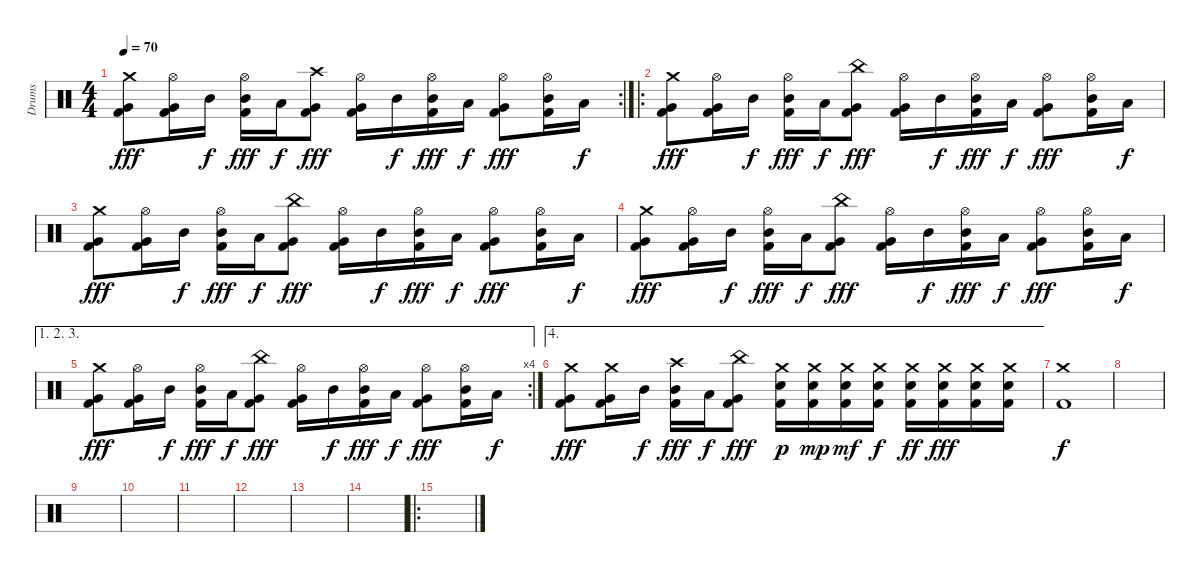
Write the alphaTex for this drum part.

\track ("Drums" "Drums") {instrument percussion}
\staff {score}
\articulation defaults
\rc 2
\ts (4 4)
\tempo 70
\clef neutral
\ks c
("Crash medium (hit)" "Kick (hit) 2" "Very Low Tom (hit)").8{dy fff} ("Hi-Hat (open)" "Kick (hit) 2" "Very Low Tom (hit)").16 "Mid Tom (hit)".16{dy f} ("Hi-Hat (open)" "Kick (hit) 2" "Mid Tom (hit)").16{dy fff} "Low Tom (hit)".16{dy f} ("Crash high (hit)" "Kick (hit) 2" "Very Low Tom (hit)").8{dy fff} ("Hi-Hat (open)" "Kick (hit) 2" "Very Low Tom (hit)").16 "Mid Tom (hit)".16{dy f} ("Hi-Hat (open)" "Kick (hit) 2" "Mid Tom (hit)").16{dy fff} "Low Tom (hit)".16{dy f} ("Hi-Hat (open)" "Kick (hit) 2" "Very Low Tom (hit)").8{dy fff} ("Hi-Hat (open)" "Kick (hit) 2" "Mid Tom (hit)").16 "Low Tom (hit)".16{dy f} |
\ro
("Crash medium (hit)" "Kick (hit) 2" "Very Low Tom (hit)").8{dy fff} ("Hi-Hat (open)" "Kick (hit) 2" "Very Low Tom (hit)").16 "Mid Tom (hit)".16{dy f} ("Hi-Hat (open)" "Kick (hit) 2" "Mid Tom (hit)").16{dy fff} "Low Tom (hit)".16{dy f} ("China (hit)" "Kick (hit) 2" "Very Low Tom (hit)").8{dy fff} ("Hi-Hat (open)" "Kick (hit) 2" "Very Low Tom (hit)").16 "Mid Tom (hit)".16{dy f} ("Hi-Hat (open)" "Kick (hit) 2" "Mid Tom (hit)").16{dy fff} "Low Tom (hit)".16{dy f} ("Hi-Hat (open)" "Kick (hit) 2" "Very Low Tom (hit)").8{dy fff} ("Hi-Hat (open)" "Kick (hit) 2" "Mid Tom (hit)").16 "Low Tom (hit)".16{dy f} |
("Crash medium (hit)" "Kick (hit) 2" "Very Low Tom (hit)").8{dy fff} ("Hi-Hat (open)" "Kick (hit) 2" "Very Low Tom (hit)").16 "Mid Tom (hit)".16{dy f} ("Hi-Hat (open)" "Kick (hit) 2" "Mid Tom (hit)").16{dy fff} "Low Tom (hit)".16{dy f} ("China (hit)" "Kick (hit) 2" "Very Low Tom (hit)").8{dy fff} ("Hi-Hat (open)" "Kick (hit) 2" "Very Low Tom (hit)").16 "Mid Tom (hit)".16{dy f} ("Hi-Hat (open)" "Kick (hit) 2" "Mid Tom (hit)").16{dy fff} "Low Tom (hit)".16{dy f} ("Hi-Hat (open)" "Kick (hit) 2" "Very Low Tom (hit)").8{dy fff} ("Hi-Hat (open)" "Kick (hit) 2" "Mid Tom (hit)").16 "Low Tom (hit)".16{dy f} |
("Crash medium (hit)" "Kick (hit) 2" "Very Low Tom (hit)").8{dy fff} ("Hi-Hat (open)" "Kick (hit) 2" "Very Low Tom (hit)").16 "Mid Tom (hit)".16{dy f} ("Hi-Hat (open)" "Kick (hit) 2" "Mid Tom (hit)").16{dy fff} "Low Tom (hit)".16{dy f} ("China (hit)" "Kick (hit) 2" "Very Low Tom (hit)").8{dy fff} ("Hi-Hat (open)" "Kick (hit) 2" "Very Low Tom (hit)").16 "Mid Tom (hit)".16{dy f} ("Hi-Hat (open)" "Kick (hit) 2" "Mid Tom (hit)").16{dy fff} "Low Tom (hit)".16{dy f} ("Hi-Hat (open)" "Kick (hit) 2" "Very Low Tom (hit)").8{dy fff} ("Hi-Hat (open)" "Kick (hit) 2" "Mid Tom (hit)").16 "Low Tom (hit)".16{dy f} |
\ae (1 2 3)
\rc 4
("Crash medium (hit)" "Kick (hit) 2" "Very Low Tom (hit)").8{dy fff} ("Hi-Hat (open)" "Kick (hit) 2" "Very Low Tom (hit)").16 "Mid Tom (hit)".16{dy f} ("Hi-Hat (open)" "Kick (hit) 2" "Mid Tom (hit)").16{dy fff} "Low Tom (hit)".16{dy f} ("China (hit)" "Kick (hit) 2" "Very Low Tom (hit)").8{dy fff} ("Hi-Hat (open)" "Kick (hit) 2" "Very Low Tom (hit)").16 "Mid Tom (hit)".16{dy f} ("Hi-Hat (open)" "Kick (hit) 2" "Mid Tom (hit)").16{dy fff} "Low Tom (hit)".16{dy f} ("Hi-Hat (open)" "Kick (hit) 2" "Very Low Tom (hit)").8{dy fff} ("Hi-Hat (open)" "Kick (hit) 2" "Mid Tom (hit)").16 "Low Tom (hit)".16{dy f} |
\ae 4
("Crash medium (hit)" "Kick (hit) 2" "Very Low Tom (hit)").8{dy fff} ("Crash medium (hit)" "Kick (hit) 2" "Very Low Tom (hit)").16 "Mid Tom (hit)".16{dy f} ("Crash high (hit)" "Kick (hit) 2" "Mid Tom (hit)").16{dy fff} "Low Tom (hit)".16{dy f} ("China (hit)" "Kick (hit) 2" "Very Low Tom (hit)").8{dy fff} ("Crash medium (hit)" "Electric Snare (hit)" "Kick (hit) 2").16{dy p} ("Crash medium (hit)" "Electric Snare (hit)" "Kick (hit) 2").16{dy mp} ("Crash medium (hit)" "Electric Snare (hit)" "Kick (hit) 2").16{dy mf} ("Crash medium (hit)" "Electric Snare (hit)" "Kick (hit) 2").16{dy f} ("Crash medium (hit)" "Electric Snare (hit)" "Kick (hit) 2").16{dy ff} ("Crash medium (hit)" "Electric Snare (hit)" "Kick (hit) 2").16{dy fff} ("Crash medium (hit)" "Electric Snare (hit)" "Kick (hit) 2").16 ("Crash medium (hit)" "Electric Snare (hit)" "Kick (hit) 2").16 |
("Crash medium (hit)" "Kick (hit) 2").1{dy f} |
|
|
|
|
|
|
|
\ro
